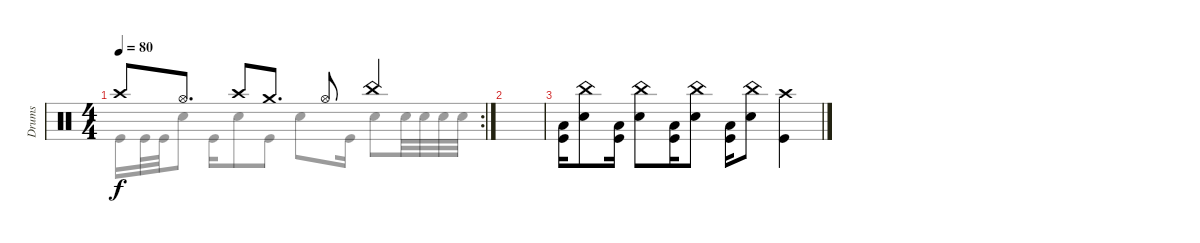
\track ("Drums" "Drums") {instrument percussion}
\staff {score}
\articulation defaults
\voice
\rc 2
\ts (4 4)
\tempo 80
\clef neutral
\ks c "Crash high (hit)".8{dy f} "Hi-Hat (open)".8{d} "Crash high (hit)".8 "Crash medium (hit)".8{d} "Hi-Hat (open)".8 "China (hit)".4
|
|
("Kick (hit)" "Low Floor Tom (hit)").16 ("Snare (hit) 2" "China (hit)").8 ("Kick (hit)" "Low Floor Tom (hit)").16 ("Snare (hit) 2" "China (hit)").8 ("Kick (hit)" "Low Floor Tom (hit)").16 ("Snare (hit) 2" "China (hit)").8 ("Kick (hit)" "Low Floor Tom (hit)").16 ("Snare (hit) 2" "China (hit)").8 ("Kick (hit)" "Crash high (hit)").4
\voice
\clef neutral
\ottava regular
\simile none
\ks c "Kick (hit)".16{dy f} "Kick (hit)".32 "Kick (hit)".32 "Snare (hit) 2".8 "Kick (hit)".16 "Snare (hit) 2".8 "Kick (hit)".8 "Snare (hit) 2".8 "Kick (hit)".16 "Snare (hit) 2".8 "Snare (hit) 2".32 "Snare (hit) 2".32 "Snare (hit) 2".32 "Snare (hit) 2".32
|
|
